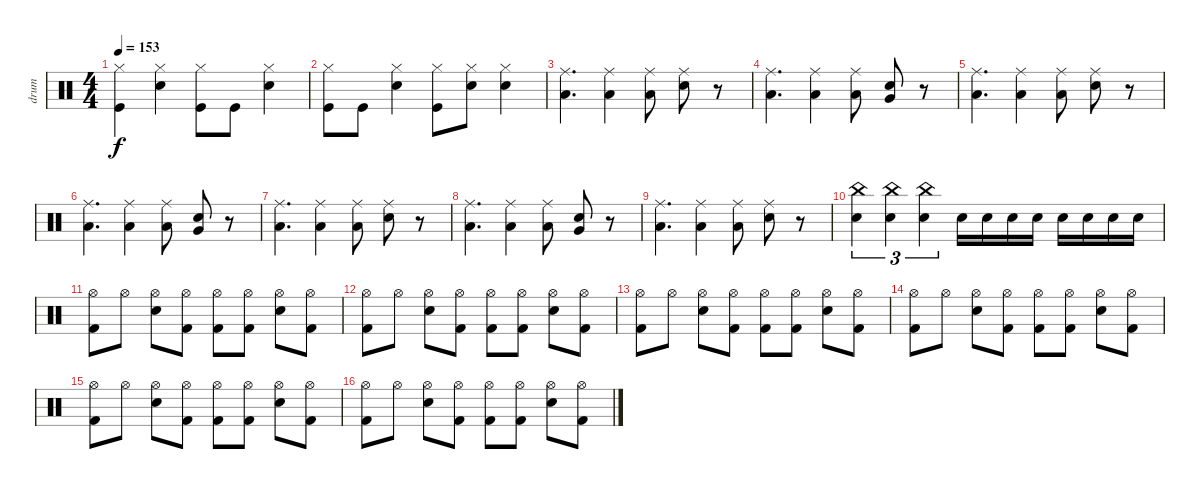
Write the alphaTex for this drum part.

\track ("drum" "drum") {instrument percussion}
\staff {score}
\articulation defaults
\ts (4 4)
\tempo 153
\clef neutral
\ks c
("Hi-Hat (closed)" "Kick (hit)").4{dy f} ("Hi-Hat (closed)" "Snare (hit) 2").4 ("Hi-Hat (closed)" "Kick (hit)").8 "Kick (hit)".8 ("Hi-Hat (closed)" "Snare (hit) 2").4 |
("Hi-Hat (closed)" "Kick (hit)").8 "Kick (hit)".8 ("Hi-Hat (closed)" "Snare (hit) 2").4 ("Hi-Hat (closed)" "Kick (hit)").8 ("Hi-Hat (closed)" "Snare (hit) 2").8 ("Hi-Hat (closed)" "Snare (hit) 2").4 |
("Ride (middle)" "Low Floor Tom (hit)").4{d} ("Ride (middle)" "Low Floor Tom (hit)").4 ("Ride (middle)" "Low Floor Tom (hit)").8 ("Ride (middle)" "Snare (hit) 2").8 r.8 |
("Ride (middle)" "Low Floor Tom (hit)").4{d} ("Ride (middle)" "Low Floor Tom (hit)").4 ("Ride (middle)" "Low Floor Tom (hit)").8 ("Very Low Tom (hit)" "Snare (hit) 2").8 r.8 |
("Ride (middle)" "Low Floor Tom (hit)").4{d} ("Ride (middle)" "Low Floor Tom (hit)").4 ("Ride (middle)" "Low Floor Tom (hit)").8 ("Ride (middle)" "Snare (hit) 2").8 r.8 |
("Ride (middle)" "Low Floor Tom (hit)").4{d} ("Ride (middle)" "Low Floor Tom (hit)").4 ("Ride (middle)" "Low Floor Tom (hit)").8 ("Very Low Tom (hit)" "Snare (hit) 2").8 r.8 |
("Ride (middle)" "Low Floor Tom (hit)").4{d} ("Ride (middle)" "Low Floor Tom (hit)").4 ("Ride (middle)" "Low Floor Tom (hit)").8 ("Ride (middle)" "Snare (hit) 2").8 r.8 |
("Ride (middle)" "Low Floor Tom (hit)").4{d} ("Ride (middle)" "Low Floor Tom (hit)").4 ("Ride (middle)" "Low Floor Tom (hit)").8 ("Very Low Tom (hit)" "Snare (hit) 2").8 r.8 |
("Ride (middle)" "Low Floor Tom (hit)").4{d} ("Ride (middle)" "Low Floor Tom (hit)").4 ("Ride (middle)" "Low Floor Tom (hit)").8 ("Ride (middle)" "Snare (hit) 2").8 r.8 |
("China (hit)" "Snare (hit) 2").4{tu (3 2)} ("China (hit)" "Snare (hit) 2").4{tu (3 2)} ("China (hit)" "Snare (hit) 2").4{tu (3 2)} "Snare (hit) 2".16 "Snare (hit) 2".16 "Snare (hit) 2".16 "Snare (hit) 2".16 "Snare (hit) 2".16 "Snare (hit) 2".16 "Snare (hit) 2".16 "Snare (hit) 2".16 |
\ks aminor
("Hi-Hat (open)" "Kick (hit) 2").8 "Hi-Hat (open)".8 ("Hi-Hat (open)" "Snare (hit) 2").8 ("Hi-Hat (open)" "Kick (hit) 2").8 ("Hi-Hat (open)" "Kick (hit) 2").8 ("Hi-Hat (open)" "Kick (hit) 2").8 ("Hi-Hat (open)" "Snare (hit) 2").8 ("Hi-Hat (open)" "Kick (hit) 2").8 |
("Hi-Hat (open)" "Kick (hit) 2").8 "Hi-Hat (open)".8 ("Hi-Hat (open)" "Snare (hit) 2").8 ("Hi-Hat (open)" "Kick (hit) 2").8 ("Hi-Hat (open)" "Kick (hit) 2").8 ("Hi-Hat (open)" "Kick (hit) 2").8 ("Hi-Hat (open)" "Snare (hit) 2").8 ("Hi-Hat (open)" "Kick (hit) 2").8 |
("Hi-Hat (open)" "Kick (hit) 2").8 "Hi-Hat (open)".8 ("Hi-Hat (open)" "Snare (hit) 2").8 ("Hi-Hat (open)" "Kick (hit) 2").8 ("Hi-Hat (open)" "Kick (hit) 2").8 ("Hi-Hat (open)" "Kick (hit) 2").8 ("Hi-Hat (open)" "Snare (hit) 2").8 ("Hi-Hat (open)" "Kick (hit) 2").8 |
("Hi-Hat (open)" "Kick (hit) 2").8 "Hi-Hat (open)".8 ("Hi-Hat (open)" "Snare (hit) 2").8 ("Hi-Hat (open)" "Kick (hit) 2").8 ("Hi-Hat (open)" "Kick (hit) 2").8 ("Hi-Hat (open)" "Kick (hit) 2").8 ("Hi-Hat (open)" "Snare (hit) 2").8 ("Hi-Hat (open)" "Kick (hit) 2").8 |
("Hi-Hat (open)" "Kick (hit) 2").8 "Hi-Hat (open)".8 ("Hi-Hat (open)" "Snare (hit) 2").8 ("Hi-Hat (open)" "Kick (hit) 2").8 ("Hi-Hat (open)" "Kick (hit) 2").8 ("Hi-Hat (open)" "Kick (hit) 2").8 ("Hi-Hat (open)" "Snare (hit) 2").8 ("Hi-Hat (open)" "Kick (hit) 2").8 |
("Hi-Hat (open)" "Kick (hit) 2").8 "Hi-Hat (open)".8 ("Hi-Hat (open)" "Snare (hit) 2").8 ("Hi-Hat (open)" "Kick (hit) 2").8 ("Hi-Hat (open)" "Kick (hit) 2").8 ("Hi-Hat (open)" "Kick (hit) 2").8 ("Hi-Hat (open)" "Snare (hit) 2").8 ("Hi-Hat (open)" "Kick (hit) 2").8
